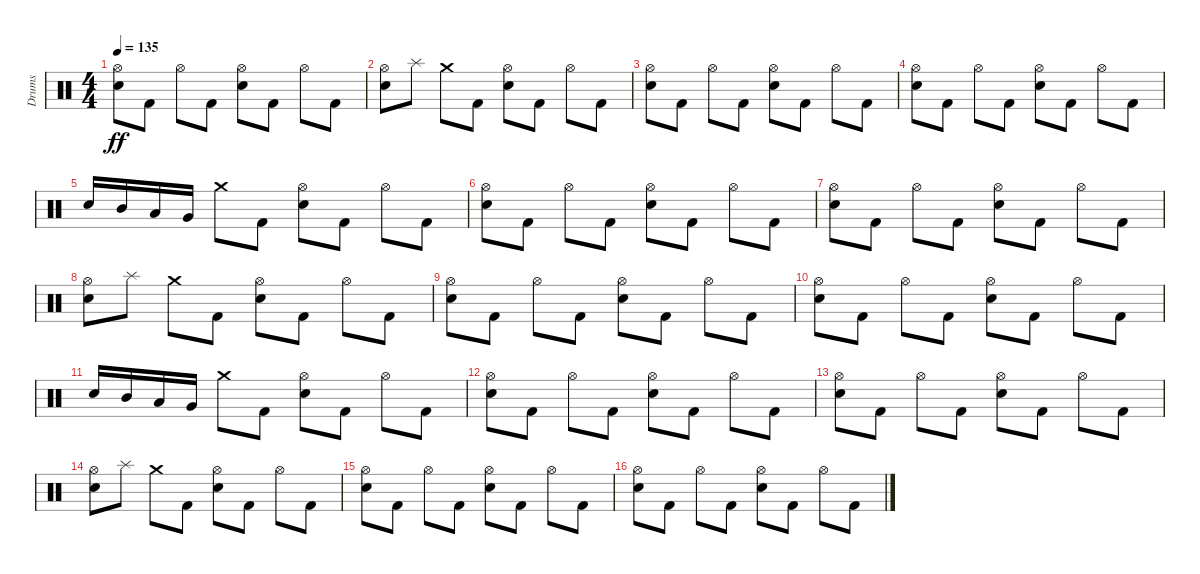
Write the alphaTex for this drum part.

\track ("Drums" "Drums") {instrument percussion}
\staff {score}
\articulation defaults
\ts (4 4)
\tempo 135
\clef neutral
\ks c
("Electric Snare (hit)" "Hi-Hat (open)").8{dy ff} "Kick (hit) 2".8 "Hi-Hat (open)".8 "Kick (hit) 2".8 ("Electric Snare (hit)" "Hi-Hat (open)").8 "Kick (hit) 2".8 "Hi-Hat (open)".8 "Kick (hit) 2".8 |
("Electric Snare (hit)" "Hi-Hat (open)").8 "Splash (hit)".8 "Crash medium (hit)".8 "Kick (hit) 2".8 ("Electric Snare (hit)" "Hi-Hat (open)").8 "Kick (hit) 2".8 "Hi-Hat (open)".8 "Kick (hit) 2".8 |
("Electric Snare (hit)" "Hi-Hat (open)").8 "Kick (hit) 2".8 "Hi-Hat (open)".8 "Kick (hit) 2".8 ("Electric Snare (hit)" "Hi-Hat (open)").8 "Kick (hit) 2".8 "Hi-Hat (open)".8 "Kick (hit) 2".8 |
("Electric Snare (hit)" "Hi-Hat (open)").8 "Kick (hit) 2".8 "Hi-Hat (open)".8 "Kick (hit) 2".8 ("Electric Snare (hit)" "Hi-Hat (open)").8 "Kick (hit) 2".8 "Hi-Hat (open)".8 "Kick (hit) 2".8 |
"Electric Snare (hit)".16 "Mid Tom (hit)".16 "Low Tom (hit)".16 "Very Low Tom (hit)".16 "Crash medium (hit)".8 "Kick (hit) 2".8 ("Electric Snare (hit)" "Hi-Hat (open)").8 "Kick (hit) 2".8 "Hi-Hat (open)".8 "Kick (hit) 2".8 |
("Electric Snare (hit)" "Hi-Hat (open)").8 "Kick (hit) 2".8 "Hi-Hat (open)".8 "Kick (hit) 2".8 ("Electric Snare (hit)" "Hi-Hat (open)").8 "Kick (hit) 2".8 "Hi-Hat (open)".8 "Kick (hit) 2".8 |
("Electric Snare (hit)" "Hi-Hat (open)").8 "Kick (hit) 2".8 "Hi-Hat (open)".8 "Kick (hit) 2".8 ("Electric Snare (hit)" "Hi-Hat (open)").8 "Kick (hit) 2".8 "Hi-Hat (open)".8 "Kick (hit) 2".8 |
("Electric Snare (hit)" "Hi-Hat (open)").8 "Splash (hit)".8 "Crash medium (hit)".8 "Kick (hit) 2".8 ("Electric Snare (hit)" "Hi-Hat (open)").8 "Kick (hit) 2".8 "Hi-Hat (open)".8 "Kick (hit) 2".8 |
("Electric Snare (hit)" "Hi-Hat (open)").8 "Kick (hit) 2".8 "Hi-Hat (open)".8 "Kick (hit) 2".8 ("Electric Snare (hit)" "Hi-Hat (open)").8 "Kick (hit) 2".8 "Hi-Hat (open)".8 "Kick (hit) 2".8 |
("Electric Snare (hit)" "Hi-Hat (open)").8 "Kick (hit) 2".8 "Hi-Hat (open)".8 "Kick (hit) 2".8 ("Electric Snare (hit)" "Hi-Hat (open)").8 "Kick (hit) 2".8 "Hi-Hat (open)".8 "Kick (hit) 2".8 |
"Electric Snare (hit)".16 "Mid Tom (hit)".16 "Low Tom (hit)".16 "Very Low Tom (hit)".16 "Crash medium (hit)".8 "Kick (hit) 2".8 ("Electric Snare (hit)" "Hi-Hat (open)").8 "Kick (hit) 2".8 "Hi-Hat (open)".8 "Kick (hit) 2".8 |
("Electric Snare (hit)" "Hi-Hat (open)").8 "Kick (hit) 2".8 "Hi-Hat (open)".8 "Kick (hit) 2".8 ("Electric Snare (hit)" "Hi-Hat (open)").8 "Kick (hit) 2".8 "Hi-Hat (open)".8 "Kick (hit) 2".8 |
("Electric Snare (hit)" "Hi-Hat (open)").8 "Kick (hit) 2".8 "Hi-Hat (open)".8 "Kick (hit) 2".8 ("Electric Snare (hit)" "Hi-Hat (open)").8 "Kick (hit) 2".8 "Hi-Hat (open)".8 "Kick (hit) 2".8 |
("Electric Snare (hit)" "Hi-Hat (open)").8 "Splash (hit)".8 "Crash medium (hit)".8 "Kick (hit) 2".8 ("Electric Snare (hit)" "Hi-Hat (open)").8 "Kick (hit) 2".8 "Hi-Hat (open)".8 "Kick (hit) 2".8 |
("Electric Snare (hit)" "Hi-Hat (open)").8 "Kick (hit) 2".8 "Hi-Hat (open)".8 "Kick (hit) 2".8 ("Electric Snare (hit)" "Hi-Hat (open)").8 "Kick (hit) 2".8 "Hi-Hat (open)".8 "Kick (hit) 2".8 |
("Electric Snare (hit)" "Hi-Hat (open)").8 "Kick (hit) 2".8 "Hi-Hat (open)".8 "Kick (hit) 2".8 ("Electric Snare (hit)" "Hi-Hat (open)").8 "Kick (hit) 2".8 "Hi-Hat (open)".8 "Kick (hit) 2".8
